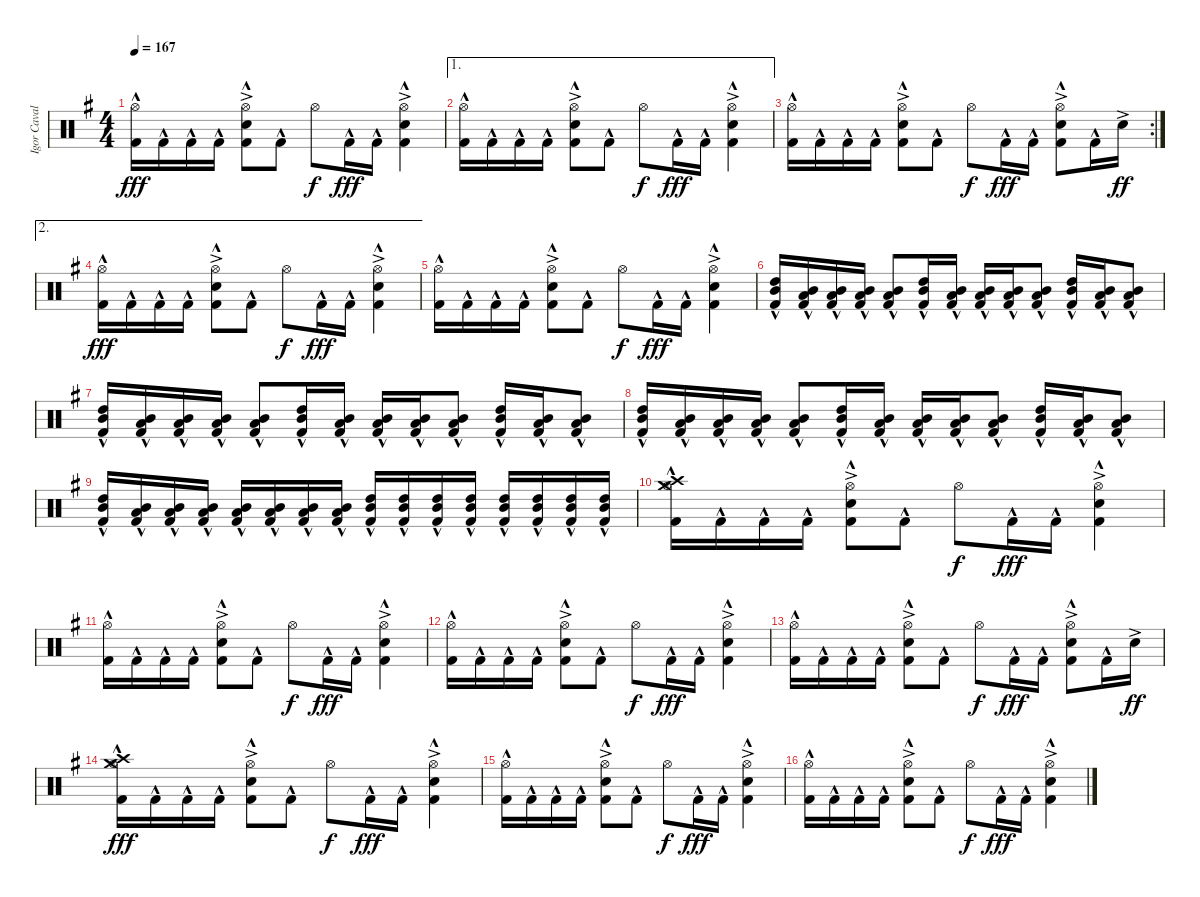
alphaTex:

\track ("Igor Cavalera" "Igor Caval") {instrument percussion}
\staff {score}
\articulation defaults
\ts (4 4)
\tempo 167
\clef neutral
\ks g
("Hi-Hat (open)" "Kick (hit) 2"{hac}).16{dy fff} "Kick (hit) 2"{hac}.16 "Kick (hit) 2"{hac}.16 "Kick (hit) 2"{hac}.16 ("Snare (hit) 2"{ac} "Hi-Hat (open)" "Kick (hit) 2"{hac}).8 "Kick (hit) 2"{hac}.8 "Hi-Hat (open)".8{dy f} "Kick (hit) 2"{hac}.16{dy fff} "Kick (hit) 2"{hac}.16 ("Snare (hit) 2"{ac} "Hi-Hat (open)" "Kick (hit) 2"{hac}).4 |
\ae 1
("Hi-Hat (open)" "Kick (hit) 2"{hac}).16 "Kick (hit) 2"{hac}.16 "Kick (hit) 2"{hac}.16 "Kick (hit) 2"{hac}.16 ("Snare (hit) 2"{ac} "Hi-Hat (open)" "Kick (hit) 2"{hac}).8 "Kick (hit) 2"{hac}.8 "Hi-Hat (open)".8{dy f} "Kick (hit) 2"{hac}.16{dy fff} "Kick (hit) 2"{hac}.16 ("Snare (hit) 2"{ac} "Hi-Hat (open)" "Kick (hit) 2"{hac}).4 |
\rc 2
("Hi-Hat (open)" "Kick (hit) 2"{hac}).16 "Kick (hit) 2"{hac}.16 "Kick (hit) 2"{hac}.16 "Kick (hit) 2"{hac}.16 ("Snare (hit) 2"{ac} "Hi-Hat (open)" "Kick (hit) 2"{hac}).8 "Kick (hit) 2"{hac}.8 "Hi-Hat (open)".8{dy f} "Kick (hit) 2"{hac}.16{dy fff} "Kick (hit) 2"{hac}.16 ("Snare (hit) 2"{ac} "Hi-Hat (open)" "Kick (hit) 2"{hac}).8 "Kick (hit) 2"{hac}.16 "Snare (hit) 2"{ac}.16{dy ff} |
\ae 2
("Hi-Hat (open)" "Kick (hit) 2"{hac}).16{dy fff} "Kick (hit) 2"{hac}.16 "Kick (hit) 2"{hac}.16 "Kick (hit) 2"{hac}.16 ("Snare (hit) 2"{ac} "Hi-Hat (open)" "Kick (hit) 2"{hac}).8 "Kick (hit) 2"{hac}.8 "Hi-Hat (open)".8{dy f} "Kick (hit) 2"{hac}.16{dy fff} "Kick (hit) 2"{hac}.16 ("Snare (hit) 2"{ac} "Hi-Hat (open)" "Kick (hit) 2"{hac}).4 |
("Hi-Hat (open)" "Kick (hit) 2"{hac}).16 "Kick (hit) 2"{hac}.16 "Kick (hit) 2"{hac}.16 "Kick (hit) 2"{hac}.16 ("Snare (hit) 2"{ac} "Hi-Hat (open)" "Kick (hit) 2"{hac}).8 "Kick (hit) 2"{hac}.8 "Hi-Hat (open)".8{dy f} "Kick (hit) 2"{hac}.16{dy fff} "Kick (hit) 2"{hac}.16 ("Snare (hit) 2"{ac} "Hi-Hat (open)" "Kick (hit) 2"{hac}).4 |
("High Tom (hit)"{hac} "Mid Tom (hit)"{hac} "Kick (hit) 2"{hac}).16 ("Mid Tom (hit)"{hac} "Low Tom (hit)"{hac} "Kick (hit) 2"{hac}).16 ("Mid Tom (hit)"{hac} "Low Tom (hit)"{hac} "Kick (hit) 2"{hac}).16 ("Mid Tom (hit)"{hac} "Low Tom (hit)"{hac} "Kick (hit) 2"{hac}).16 ("Mid Tom (hit)"{hac} "Low Tom (hit)"{hac} "Kick (hit) 2"{hac}).8 ("High Tom (hit)"{hac} "Mid Tom (hit)"{hac} "Kick (hit) 2"{hac}).16 ("Mid Tom (hit)"{hac} "Low Tom (hit)"{hac} "Kick (hit) 2"{hac}).16 ("Mid Tom (hit)"{hac} "Low Tom (hit)"{hac} "Kick (hit) 2"{hac}).16 ("Mid Tom (hit)"{hac} "Low Tom (hit)"{hac} "Kick (hit) 2"{hac}).16 ("Mid Tom (hit)"{hac} "Low Tom (hit)"{hac} "Kick (hit) 2"{hac}).8 ("High Tom (hit)"{hac} "Mid Tom (hit)"{hac} "Kick (hit) 2"{hac}).16 ("Mid Tom (hit)"{hac} "Low Tom (hit)"{hac} "Kick (hit) 2"{hac}).16 ("Mid Tom (hit)"{hac} "Low Tom (hit)"{hac} "Kick (hit) 2"{hac}).8 |
("High Tom (hit)"{hac} "Mid Tom (hit)"{hac} "Kick (hit) 2"{hac}).16 ("Mid Tom (hit)"{hac} "Low Tom (hit)"{hac} "Kick (hit) 2"{hac}).16 ("Mid Tom (hit)"{hac} "Low Tom (hit)"{hac} "Kick (hit) 2"{hac}).16 ("Mid Tom (hit)"{hac} "Low Tom (hit)"{hac} "Kick (hit) 2"{hac}).16 ("Mid Tom (hit)"{hac} "Low Tom (hit)"{hac} "Kick (hit) 2"{hac}).8 ("High Tom (hit)"{hac} "Mid Tom (hit)"{hac} "Kick (hit) 2"{hac}).16 ("Mid Tom (hit)"{hac} "Low Tom (hit)"{hac} "Kick (hit) 2"{hac}).16 ("Mid Tom (hit)"{hac} "Low Tom (hit)"{hac} "Kick (hit) 2"{hac}).16 ("Mid Tom (hit)"{hac} "Low Tom (hit)"{hac} "Kick (hit) 2"{hac}).16 ("Mid Tom (hit)"{hac} "Low Tom (hit)"{hac} "Kick (hit) 2"{hac}).8 ("High Tom (hit)"{hac} "Mid Tom (hit)"{hac} "Kick (hit) 2"{hac}).16 ("Mid Tom (hit)"{hac} "Low Tom (hit)"{hac} "Kick (hit) 2"{hac}).16 ("Mid Tom (hit)"{hac} "Low Tom (hit)"{hac} "Kick (hit) 2"{hac}).8 |
("High Tom (hit)"{hac} "Mid Tom (hit)"{hac} "Kick (hit) 2"{hac}).16 ("Mid Tom (hit)"{hac} "Low Tom (hit)"{hac} "Kick (hit) 2"{hac}).16 ("Mid Tom (hit)"{hac} "Low Tom (hit)"{hac} "Kick (hit) 2"{hac}).16 ("Mid Tom (hit)"{hac} "Low Tom (hit)"{hac} "Kick (hit) 2"{hac}).16 ("Mid Tom (hit)"{hac} "Low Tom (hit)"{hac} "Kick (hit) 2"{hac}).8 ("High Tom (hit)"{hac} "Mid Tom (hit)"{hac} "Kick (hit) 2"{hac}).16 ("Mid Tom (hit)"{hac} "Low Tom (hit)"{hac} "Kick (hit) 2"{hac}).16 ("Mid Tom (hit)"{hac} "Low Tom (hit)"{hac} "Kick (hit) 2"{hac}).16 ("Mid Tom (hit)"{hac} "Low Tom (hit)"{hac} "Kick (hit) 2"{hac}).16 ("Mid Tom (hit)"{hac} "Low Tom (hit)"{hac} "Kick (hit) 2"{hac}).8 ("High Tom (hit)"{hac} "Mid Tom (hit)"{hac} "Kick (hit) 2"{hac}).16 ("Mid Tom (hit)"{hac} "Low Tom (hit)"{hac} "Kick (hit) 2"{hac}).16 ("Mid Tom (hit)"{hac} "Low Tom (hit)"{hac} "Kick (hit) 2"{hac}).8 |
("High Tom (hit)"{hac} "Mid Tom (hit)"{hac} "Kick (hit) 2"{hac}).16 ("Mid Tom (hit)"{hac} "Low Tom (hit)"{hac} "Kick (hit) 2"{hac}).16 ("Mid Tom (hit)"{hac} "Low Tom (hit)"{hac} "Kick (hit) 2"{hac}).16 ("Mid Tom (hit)"{hac} "Low Tom (hit)"{hac} "Kick (hit) 2"{hac}).16 ("Mid Tom (hit)"{hac} "Low Tom (hit)"{hac} "Kick (hit) 2"{hac}).16 ("Mid Tom (hit)"{hac} "Low Tom (hit)"{hac} "Kick (hit) 2"{hac}).16 ("Mid Tom (hit)"{hac} "Low Tom (hit)"{hac} "Kick (hit) 2"{hac}).16 ("Mid Tom (hit)"{hac} "Low Tom (hit)"{hac} "Kick (hit) 2"{hac}).16 ("High Tom (hit)"{hac} "Mid Tom (hit)"{hac} "Kick (hit) 2"{hac}).16 ("High Tom (hit)"{hac} "Mid Tom (hit)"{hac} "Kick (hit) 2"{hac}).16 ("High Tom (hit)"{hac} "Mid Tom (hit)"{hac} "Kick (hit) 2"{hac}).16 ("High Tom (hit)"{hac} "Mid Tom (hit)"{hac} "Kick (hit) 2"{hac}).16 ("High Tom (hit)"{hac} "Mid Tom (hit)"{hac} "Kick (hit) 2"{hac}).16 ("High Tom (hit)"{hac} "Mid Tom (hit)"{hac} "Kick (hit) 2"{hac}).16 ("High Tom (hit)"{hac} "Mid Tom (hit)"{hac} "Kick (hit) 2"{hac}).16 ("High Tom (hit)"{hac} "Mid Tom (hit)"{hac} "Kick (hit) 2"{hac}).16 |
("Crash medium (hit)"{hac} "Crash high (hit)" "Hi-Hat (open)" "Kick (hit) 2"{hac}).16 "Kick (hit) 2"{hac}.16 "Kick (hit) 2"{hac}.16 "Kick (hit) 2"{hac}.16 ("Snare (hit) 2"{ac} "Hi-Hat (open)" "Kick (hit) 2"{hac}).8 "Kick (hit) 2"{hac}.8 "Hi-Hat (open)".8{dy f} "Kick (hit) 2"{hac}.16{dy fff} "Kick (hit) 2"{hac}.16 ("Snare (hit) 2"{ac} "Hi-Hat (open)" "Kick (hit) 2"{hac}).4 |
("Hi-Hat (open)" "Kick (hit) 2"{hac}).16 "Kick (hit) 2"{hac}.16 "Kick (hit) 2"{hac}.16 "Kick (hit) 2"{hac}.16 ("Snare (hit) 2"{ac} "Hi-Hat (open)" "Kick (hit) 2"{hac}).8 "Kick (hit) 2"{hac}.8 "Hi-Hat (open)".8{dy f} "Kick (hit) 2"{hac}.16{dy fff} "Kick (hit) 2"{hac}.16 ("Snare (hit) 2"{ac} "Hi-Hat (open)" "Kick (hit) 2"{hac}).4 |
("Hi-Hat (open)" "Kick (hit) 2"{hac}).16 "Kick (hit) 2"{hac}.16 "Kick (hit) 2"{hac}.16 "Kick (hit) 2"{hac}.16 ("Snare (hit) 2"{ac} "Hi-Hat (open)" "Kick (hit) 2"{hac}).8 "Kick (hit) 2"{hac}.8 "Hi-Hat (open)".8{dy f} "Kick (hit) 2"{hac}.16{dy fff} "Kick (hit) 2"{hac}.16 ("Snare (hit) 2"{ac} "Hi-Hat (open)" "Kick (hit) 2"{hac}).4 |
("Hi-Hat (open)" "Kick (hit) 2"{hac}).16 "Kick (hit) 2"{hac}.16 "Kick (hit) 2"{hac}.16 "Kick (hit) 2"{hac}.16 ("Snare (hit) 2"{ac} "Hi-Hat (open)" "Kick (hit) 2"{hac}).8 "Kick (hit) 2"{hac}.8 "Hi-Hat (open)".8{dy f} "Kick (hit) 2"{hac}.16{dy fff} "Kick (hit) 2"{hac}.16 ("Snare (hit) 2"{ac} "Hi-Hat (open)" "Kick (hit) 2"{hac}).8 "Kick (hit) 2"{hac}.16 "Snare (hit) 2"{ac}.16{dy ff} |
("Crash medium (hit)"{hac} "Crash high (hit)" "Hi-Hat (open)" "Kick (hit) 2"{hac}).16{dy fff} "Kick (hit) 2"{hac}.16 "Kick (hit) 2"{hac}.16 "Kick (hit) 2"{hac}.16 ("Snare (hit) 2"{ac} "Hi-Hat (open)" "Kick (hit) 2"{hac}).8 "Kick (hit) 2"{hac}.8 "Hi-Hat (open)".8{dy f} "Kick (hit) 2"{hac}.16{dy fff} "Kick (hit) 2"{hac}.16 ("Snare (hit) 2"{ac} "Hi-Hat (open)" "Kick (hit) 2"{hac}).4 |
("Hi-Hat (open)" "Kick (hit) 2"{hac}).16 "Kick (hit) 2"{hac}.16 "Kick (hit) 2"{hac}.16 "Kick (hit) 2"{hac}.16 ("Snare (hit) 2"{ac} "Hi-Hat (open)" "Kick (hit) 2"{hac}).8 "Kick (hit) 2"{hac}.8 "Hi-Hat (open)".8{dy f} "Kick (hit) 2"{hac}.16{dy fff} "Kick (hit) 2"{hac}.16 ("Snare (hit) 2"{ac} "Hi-Hat (open)" "Kick (hit) 2"{hac}).4 |
("Hi-Hat (open)" "Kick (hit) 2"{hac}).16 "Kick (hit) 2"{hac}.16 "Kick (hit) 2"{hac}.16 "Kick (hit) 2"{hac}.16 ("Snare (hit) 2"{ac} "Hi-Hat (open)" "Kick (hit) 2"{hac}).8 "Kick (hit) 2"{hac}.8 "Hi-Hat (open)".8{dy f} "Kick (hit) 2"{hac}.16{dy fff} "Kick (hit) 2"{hac}.16 ("Snare (hit) 2"{ac} "Hi-Hat (open)" "Kick (hit) 2"{hac}).4
